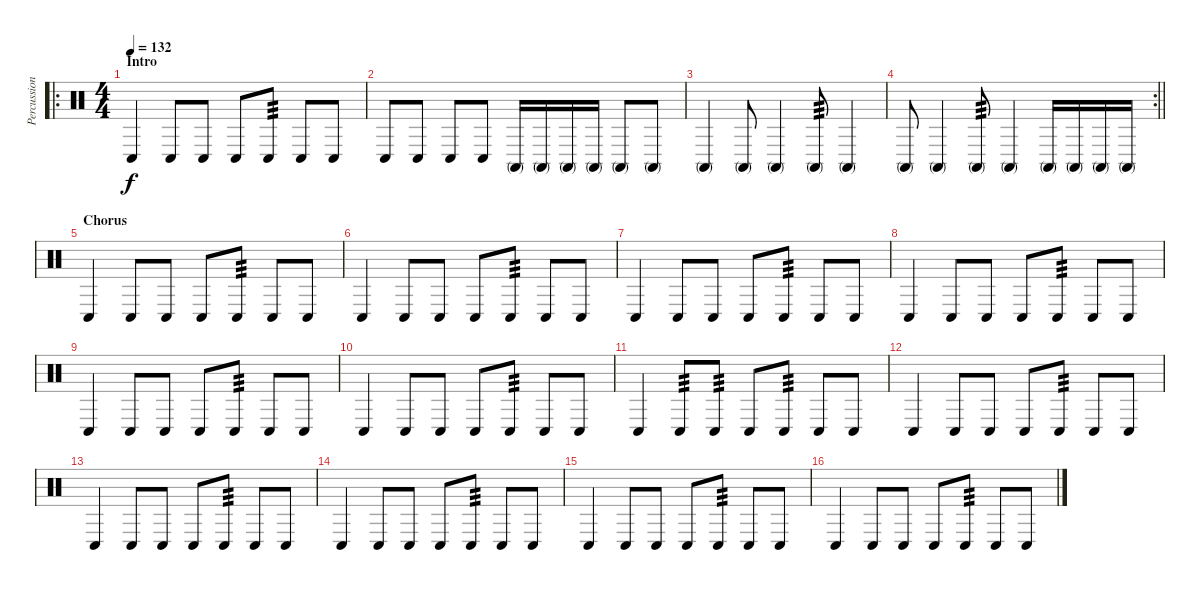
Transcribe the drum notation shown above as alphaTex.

\track ("Percussion" "Percussion") {instrument percussion}
\staff {score}
\articulation defaults
\ro
\ts (4 4)
\section ("" "Intro")
\tempo 132
\clef neutral
\ks c "Conga low (hit)".4{dy f} "Conga low (hit)".8 "Conga low (hit)".8 "Conga low (hit)".8 "Conga low (hit)".8{tp 3} "Conga low (hit)".8 "Conga low (hit)".8
|
"Conga low (hit)".8 "Conga low (hit)".8 "Conga low (hit)".8 "Conga low (hit)".8 "Conga high (mute)".16 "Conga high (mute)".16 "Conga high (mute)".16 "Conga high (mute)".16 "Conga high (mute)".8 "Conga high (mute)".8 |
"Conga high (mute)".4 "Conga high (mute)".8 "Conga high (mute)".4 "Conga high (mute)".8{tp 3} "Conga high (mute)".4 |
\rc 2
\barLineRight lightlight "Conga high (mute)".8 "Conga high (mute)".4 "Conga high (mute)".8{tp 3} "Conga high (mute)".4 "Conga high (mute)".16 "Conga high (mute)".16 "Conga high (mute)".16 "Conga high (mute)".16
|
\section ("" "Chorus")
"Conga low (hit)".4 "Conga low (hit)".8 "Conga low (hit)".8 "Conga low (hit)".8 "Conga low (hit)".8{tp 3} "Conga low (hit)".8 "Conga low (hit)".8 |
"Conga low (hit)".4 "Conga low (hit)".8 "Conga low (hit)".8 "Conga low (hit)".8 "Conga low (hit)".8{tp 3} "Conga low (hit)".8 "Conga low (hit)".8 |
"Conga low (hit)".4 "Conga low (hit)".8 "Conga low (hit)".8 "Conga low (hit)".8 "Conga low (hit)".8{tp 3} "Conga low (hit)".8 "Conga low (hit)".8 |
"Conga low (hit)".4 "Conga low (hit)".8 "Conga low (hit)".8 "Conga low (hit)".8 "Conga low (hit)".8{tp 3} "Conga low (hit)".8 "Conga low (hit)".8 |
"Conga low (hit)".4 "Conga low (hit)".8 "Conga low (hit)".8 "Conga low (hit)".8 "Conga low (hit)".8{tp 3} "Conga low (hit)".8 "Conga low (hit)".8 |
"Conga low (hit)".4 "Conga low (hit)".8 "Conga low (hit)".8 "Conga low (hit)".8 "Conga low (hit)".8{tp 3} "Conga low (hit)".8 "Conga low (hit)".8 |
"Conga low (hit)".4 "Conga low (hit)".8{tp 3} "Conga low (hit)".8{tp 3} "Conga low (hit)".8 "Conga low (hit)".8{tp 3} "Conga low (hit)".8 "Conga low (hit)".8 |
"Conga low (hit)".4 "Conga low (hit)".8 "Conga low (hit)".8 "Conga low (hit)".8 "Conga low (hit)".8{tp 3} "Conga low (hit)".8 "Conga low (hit)".8 |
"Conga low (hit)".4 "Conga low (hit)".8 "Conga low (hit)".8 "Conga low (hit)".8 "Conga low (hit)".8{tp 3} "Conga low (hit)".8 "Conga low (hit)".8 |
"Conga low (hit)".4 "Conga low (hit)".8 "Conga low (hit)".8 "Conga low (hit)".8 "Conga low (hit)".8{tp 3} "Conga low (hit)".8 "Conga low (hit)".8 |
"Conga low (hit)".4 "Conga low (hit)".8 "Conga low (hit)".8 "Conga low (hit)".8 "Conga low (hit)".8{tp 3} "Conga low (hit)".8 "Conga low (hit)".8 |
"Conga low (hit)".4 "Conga low (hit)".8 "Conga low (hit)".8 "Conga low (hit)".8 "Conga low (hit)".8{tp 3} "Conga low (hit)".8 "Conga low (hit)".8
